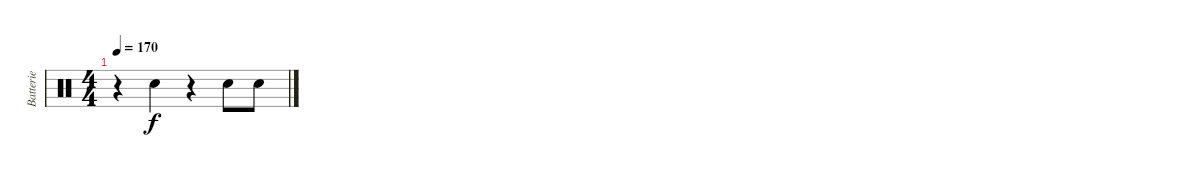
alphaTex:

\track ("Batterie" "Batterie") {instrument percussion}
\staff {score}
\articulation defaults
\ts (4 4)
\tempo 170
\clef neutral
\ks c
r.4{dy f} "Snare (hit) 2".4 r.4 "Snare (hit) 2".8 "Snare (hit) 2".8
